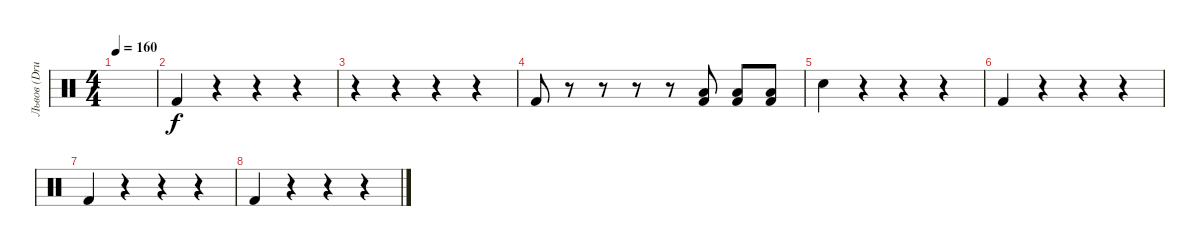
\track ("Львов (Drums)" "Львов (Dru") {instrument percussion}
\staff {score}
\articulation defaults
\ts (4 4)
\tempo 160
\clef neutral
\ks c
|
"Kick (hit) 2".4 r.4 r.4 r.4 |
r.4 r.4 r.4 r.4 |
"Kick (hit) 2".8 r.8 r.8 r.8 r.8 ("Kick (hit) 2" "Low Floor Tom (hit)").8 ("Kick (hit) 2" "Low Floor Tom (hit)").8 ("Kick (hit) 2" "Low Floor Tom (hit)").8 |
"Snare (hit) 2".4 r.4 r.4 r.4 |
"Kick (hit) 2".4 r.4 r.4 r.4 |
"Kick (hit) 2".4 r.4 r.4 r.4 |
"Kick (hit) 2".4 r.4 r.4 r.4
